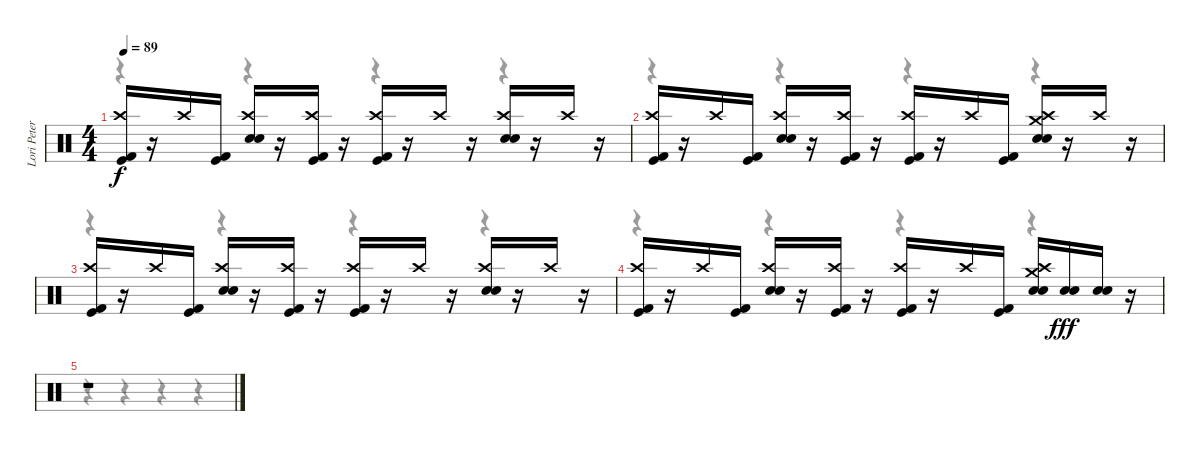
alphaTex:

\track ("Lori Peters" "Lori Peter") {instrument percussion}
\staff {score}
\articulation defaults
\voice
\ts (4 4)
\tempo 89
\clef neutral
\ks c
("Crash high (hit)" "Kick (hit) 2" "Kick (hit)").16{dy f} r.16 "Crash high (hit)".16 ("Kick (hit) 2" "Kick (hit)").16 ("Crash high (hit)" "Snare (hit) 2" "Snare (hit) 2").16 r.16 ("Crash high (hit)" "Kick (hit) 2" "Kick (hit)").16 r.16 ("Crash high (hit)" "Kick (hit) 2" "Kick (hit)").16 r.16 "Crash high (hit)".16 r.16 ("Crash high (hit)" "Snare (hit) 2" "Snare (hit) 2").16 r.16 "Crash high (hit)".16 r.16 |
("Crash high (hit)" "Kick (hit) 2" "Kick (hit)").16 r.16 "Crash high (hit)".16 ("Kick (hit) 2" "Kick (hit)").16 ("Crash high (hit)" "Snare (hit) 2" "Snare (hit) 2").16 r.16 ("Crash high (hit)" "Kick (hit) 2" "Kick (hit)").16 r.16 ("Crash high (hit)" "Kick (hit) 2" "Kick (hit)").16 r.16 "Crash high (hit)".16 ("Kick (hit) 2" "Kick (hit)").16 ("Crash high (hit)" "Crash medium (hit)" "Snare (hit) 2" "Snare (hit) 2").16 r.16 "Crash high (hit)".16 r.16 |
("Crash high (hit)" "Kick (hit) 2" "Kick (hit)").16 r.16 "Crash high (hit)".16 ("Kick (hit) 2" "Kick (hit)").16 ("Crash high (hit)" "Snare (hit) 2" "Snare (hit) 2").16 r.16 ("Crash high (hit)" "Kick (hit) 2" "Kick (hit)").16 r.16 ("Crash high (hit)" "Kick (hit) 2" "Kick (hit)").16 r.16 "Crash high (hit)".16 r.16 ("Crash high (hit)" "Snare (hit) 2" "Snare (hit) 2").16 r.16 "Crash high (hit)".16 r.16 |
("Crash high (hit)" "Kick (hit) 2" "Kick (hit)").16 r.16 "Crash high (hit)".16 ("Kick (hit) 2" "Kick (hit)").16 ("Crash high (hit)" "Snare (hit) 2" "Snare (hit) 2").16 r.16 ("Crash high (hit)" "Kick (hit) 2" "Kick (hit)").16 r.16 ("Crash high (hit)" "Kick (hit) 2" "Kick (hit)").16 r.16 "Crash high (hit)".16 ("Kick (hit) 2" "Kick (hit)").16 ("Crash high (hit)" "Crash medium (hit)" "Snare (hit) 2" "Snare (hit) 2").16 ("Snare (hit) 2" "Snare (hit) 2").16{dy fff} ("Snare (hit) 2" "Snare (hit) 2").16 r.16 |
r.1
\voice
\clef neutral
\ottava regular
\simile none
\ks c
r.4{dy f} r.4 r.4 r.4 |
r.4 r.4 r.4 r.4 |
r.4 r.4 r.4 r.4 |
r.4 r.4 r.4 r.4 |
r.4 r.4 r.4 r.4
